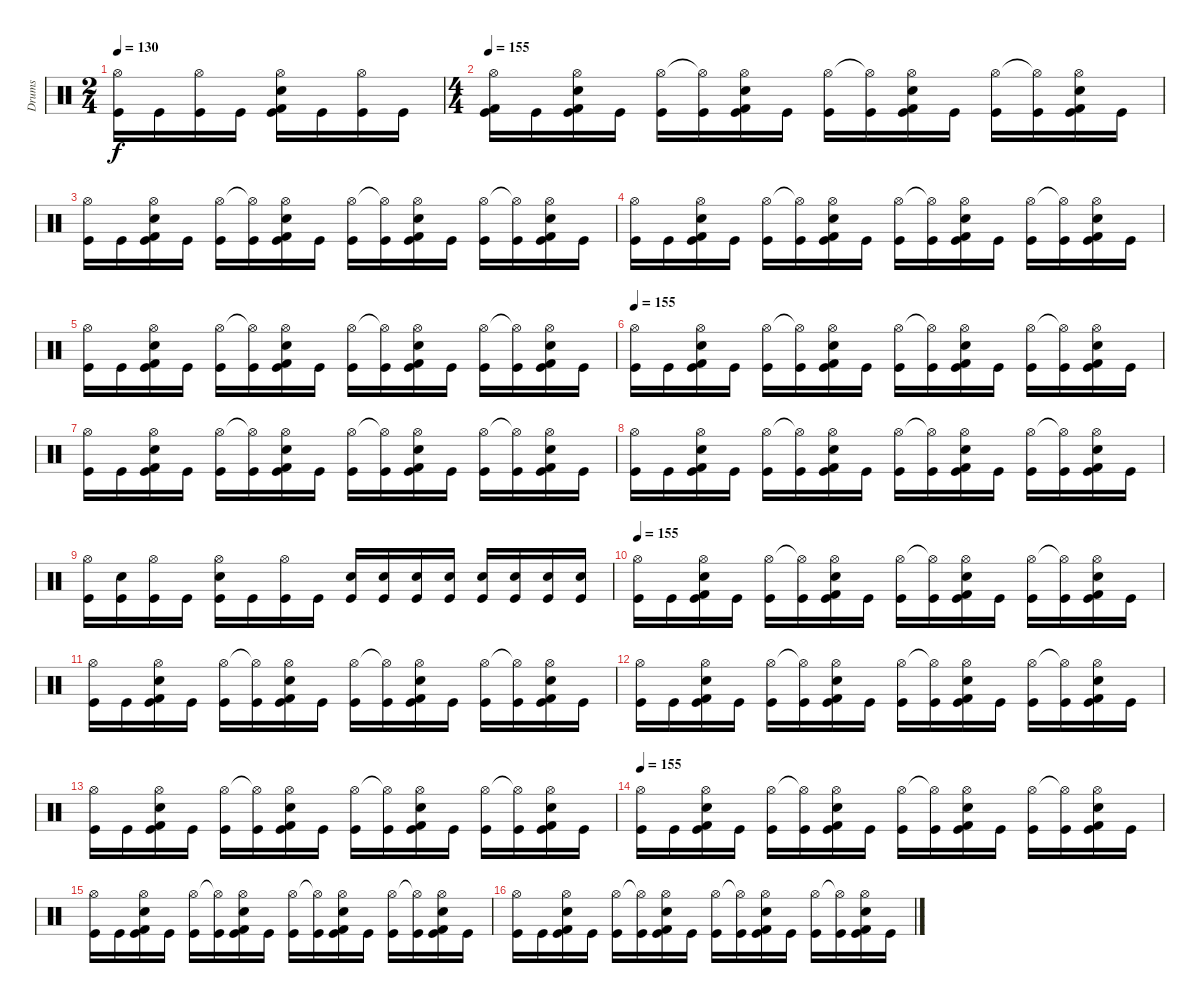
\track ("Drums" "Drums") {instrument percussion}
\staff {score}
\articulation defaults
\ts (2 4)
\tempo 130
\clef neutral
\ks c
("Hi-Hat (open)" "Kick (hit)").16{dy f} "Kick (hit)".16 ("Hi-Hat (open)" "Kick (hit)").16 "Kick (hit)".16 ("Kick (hit) 2" "Electric Snare (hit)" "Hi-Hat (open)" "Kick (hit)").16 "Kick (hit)".16 ("Hi-Hat (open)" "Kick (hit)").16 "Kick (hit)".16 |
\ts (4 4)
\tempo 155
("Kick (hit) 2" "Hi-Hat (open)" "Kick (hit)").16 "Kick (hit)".16 ("Kick (hit) 2" "Electric Snare (hit)" "Hi-Hat (open)" "Kick (hit)").16 "Kick (hit)".16 ("Hi-Hat (open)" "Kick (hit)").16 ("Hi-Hat (open)"{t} "Kick (hit)").16 ("Kick (hit) 2" "Electric Snare (hit)" "Hi-Hat (open)" "Kick (hit)").16 "Kick (hit)".16 ("Hi-Hat (open)" "Kick (hit)").16 ("Hi-Hat (open)"{t} "Kick (hit)").16 ("Kick (hit) 2" "Electric Snare (hit)" "Hi-Hat (open)" "Kick (hit)").16 "Kick (hit)".16 ("Hi-Hat (open)" "Kick (hit)").16 ("Hi-Hat (open)"{t} "Kick (hit)").16 ("Kick (hit) 2" "Electric Snare (hit)" "Hi-Hat (open)" "Kick (hit)").16 "Kick (hit)".16 |
("Hi-Hat (open)" "Kick (hit)").16 "Kick (hit)".16 ("Kick (hit) 2" "Electric Snare (hit)" "Hi-Hat (open)" "Kick (hit)").16 "Kick (hit)".16 ("Hi-Hat (open)" "Kick (hit)").16 ("Hi-Hat (open)"{t} "Kick (hit)").16 ("Kick (hit) 2" "Electric Snare (hit)" "Hi-Hat (open)" "Kick (hit)").16 "Kick (hit)".16 ("Hi-Hat (open)" "Kick (hit)").16 ("Hi-Hat (open)"{t} "Kick (hit)").16 ("Kick (hit) 2" "Electric Snare (hit)" "Hi-Hat (open)" "Kick (hit)").16 "Kick (hit)".16 ("Hi-Hat (open)" "Kick (hit)").16 ("Hi-Hat (open)"{t} "Kick (hit)").16 ("Kick (hit) 2" "Electric Snare (hit)" "Hi-Hat (open)" "Kick (hit)").16 "Kick (hit)".16 |
("Hi-Hat (open)" "Kick (hit)").16 "Kick (hit)".16 ("Kick (hit) 2" "Electric Snare (hit)" "Hi-Hat (open)" "Kick (hit)").16 "Kick (hit)".16 ("Hi-Hat (open)" "Kick (hit)").16 ("Hi-Hat (open)"{t} "Kick (hit)").16 ("Kick (hit) 2" "Electric Snare (hit)" "Hi-Hat (open)" "Kick (hit)").16 "Kick (hit)".16 ("Hi-Hat (open)" "Kick (hit)").16 ("Hi-Hat (open)"{t} "Kick (hit)").16 ("Kick (hit) 2" "Electric Snare (hit)" "Hi-Hat (open)" "Kick (hit)").16 "Kick (hit)".16 ("Hi-Hat (open)" "Kick (hit)").16 ("Hi-Hat (open)"{t} "Kick (hit)").16 ("Kick (hit) 2" "Electric Snare (hit)" "Hi-Hat (open)" "Kick (hit)").16 "Kick (hit)".16 |
("Hi-Hat (open)" "Kick (hit)").16 "Kick (hit)".16 ("Kick (hit) 2" "Electric Snare (hit)" "Hi-Hat (open)" "Kick (hit)").16 "Kick (hit)".16 ("Hi-Hat (open)" "Kick (hit)").16 ("Hi-Hat (open)"{t} "Kick (hit)").16 ("Kick (hit) 2" "Electric Snare (hit)" "Hi-Hat (open)" "Kick (hit)").16 "Kick (hit)".16 ("Hi-Hat (open)" "Kick (hit)").16 ("Hi-Hat (open)"{t} "Kick (hit)").16 ("Kick (hit) 2" "Electric Snare (hit)" "Hi-Hat (open)" "Kick (hit)").16 "Kick (hit)".16 ("Hi-Hat (open)" "Kick (hit)").16 ("Hi-Hat (open)"{t} "Kick (hit)").16 ("Kick (hit) 2" "Electric Snare (hit)" "Hi-Hat (open)" "Kick (hit)").16 "Kick (hit)".16 |
\tempo 155
("Hi-Hat (open)" "Kick (hit)").16 "Kick (hit)".16 ("Kick (hit) 2" "Electric Snare (hit)" "Hi-Hat (open)" "Kick (hit)").16 "Kick (hit)".16 ("Hi-Hat (open)" "Kick (hit)").16 ("Hi-Hat (open)"{t} "Kick (hit)").16 ("Kick (hit) 2" "Electric Snare (hit)" "Hi-Hat (open)" "Kick (hit)").16 "Kick (hit)".16 ("Hi-Hat (open)" "Kick (hit)").16 ("Hi-Hat (open)"{t} "Kick (hit)").16 ("Kick (hit) 2" "Electric Snare (hit)" "Hi-Hat (open)" "Kick (hit)").16 "Kick (hit)".16 ("Hi-Hat (open)" "Kick (hit)").16 ("Hi-Hat (open)"{t} "Kick (hit)").16 ("Kick (hit) 2" "Electric Snare (hit)" "Hi-Hat (open)" "Kick (hit)").16 "Kick (hit)".16 |
("Hi-Hat (open)" "Kick (hit)").16 "Kick (hit)".16 ("Kick (hit) 2" "Electric Snare (hit)" "Hi-Hat (open)" "Kick (hit)").16 "Kick (hit)".16 ("Hi-Hat (open)" "Kick (hit)").16 ("Hi-Hat (open)"{t} "Kick (hit)").16 ("Kick (hit) 2" "Electric Snare (hit)" "Hi-Hat (open)" "Kick (hit)").16 "Kick (hit)".16 ("Hi-Hat (open)" "Kick (hit)").16 ("Hi-Hat (open)"{t} "Kick (hit)").16 ("Kick (hit) 2" "Electric Snare (hit)" "Hi-Hat (open)" "Kick (hit)").16 "Kick (hit)".16 ("Hi-Hat (open)" "Kick (hit)").16 ("Hi-Hat (open)"{t} "Kick (hit)").16 ("Kick (hit) 2" "Electric Snare (hit)" "Hi-Hat (open)" "Kick (hit)").16 "Kick (hit)".16 |
("Hi-Hat (open)" "Kick (hit)").16 "Kick (hit)".16 ("Kick (hit) 2" "Electric Snare (hit)" "Hi-Hat (open)" "Kick (hit)").16 "Kick (hit)".16 ("Hi-Hat (open)" "Kick (hit)").16 ("Hi-Hat (open)"{t} "Kick (hit)").16 ("Kick (hit) 2" "Electric Snare (hit)" "Hi-Hat (open)" "Kick (hit)").16 "Kick (hit)".16 ("Hi-Hat (open)" "Kick (hit)").16 ("Hi-Hat (open)"{t} "Kick (hit)").16 ("Kick (hit) 2" "Electric Snare (hit)" "Hi-Hat (open)" "Kick (hit)").16 "Kick (hit)".16 ("Hi-Hat (open)" "Kick (hit)").16 ("Hi-Hat (open)"{t} "Kick (hit)").16 ("Kick (hit) 2" "Electric Snare (hit)" "Hi-Hat (open)" "Kick (hit)").16 "Kick (hit)".16 |
("Hi-Hat (open)" "Kick (hit)").16 ("Electric Snare (hit)" "Kick (hit)").16 ("Hi-Hat (open)" "Kick (hit)").16 "Kick (hit)".16 ("Electric Snare (hit)" "Hi-Hat (open)" "Kick (hit)").16 "Kick (hit)".16 ("Hi-Hat (open)" "Kick (hit)").16 "Kick (hit)".16 ("Electric Snare (hit)" "Kick (hit)").16 ("Electric Snare (hit)" "Kick (hit)").16 ("Electric Snare (hit)" "Kick (hit)").16 ("Electric Snare (hit)" "Kick (hit)").16 ("Electric Snare (hit)" "Kick (hit)").16 ("Electric Snare (hit)" "Kick (hit)").16 ("Electric Snare (hit)" "Kick (hit)").16 ("Electric Snare (hit)" "Kick (hit)").16 |
\tempo 155
("Hi-Hat (open)" "Kick (hit)").16 "Kick (hit)".16 ("Kick (hit) 2" "Electric Snare (hit)" "Hi-Hat (open)" "Kick (hit)").16 "Kick (hit)".16 ("Hi-Hat (open)" "Kick (hit)").16 ("Hi-Hat (open)"{t} "Kick (hit)").16 ("Kick (hit) 2" "Electric Snare (hit)" "Hi-Hat (open)" "Kick (hit)").16 "Kick (hit)".16 ("Hi-Hat (open)" "Kick (hit)").16 ("Hi-Hat (open)"{t} "Kick (hit)").16 ("Kick (hit) 2" "Electric Snare (hit)" "Hi-Hat (open)" "Kick (hit)").16 "Kick (hit)".16 ("Hi-Hat (open)" "Kick (hit)").16 ("Hi-Hat (open)"{t} "Kick (hit)").16 ("Kick (hit) 2" "Electric Snare (hit)" "Hi-Hat (open)" "Kick (hit)").16 "Kick (hit)".16 |
("Hi-Hat (open)" "Kick (hit)").16 "Kick (hit)".16 ("Kick (hit) 2" "Electric Snare (hit)" "Hi-Hat (open)" "Kick (hit)").16 "Kick (hit)".16 ("Hi-Hat (open)" "Kick (hit)").16 ("Hi-Hat (open)"{t} "Kick (hit)").16 ("Kick (hit) 2" "Electric Snare (hit)" "Hi-Hat (open)" "Kick (hit)").16 "Kick (hit)".16 ("Hi-Hat (open)" "Kick (hit)").16 ("Hi-Hat (open)"{t} "Kick (hit)").16 ("Kick (hit) 2" "Electric Snare (hit)" "Hi-Hat (open)" "Kick (hit)").16 "Kick (hit)".16 ("Hi-Hat (open)" "Kick (hit)").16 ("Hi-Hat (open)"{t} "Kick (hit)").16 ("Kick (hit) 2" "Electric Snare (hit)" "Hi-Hat (open)" "Kick (hit)").16 "Kick (hit)".16 |
("Hi-Hat (open)" "Kick (hit)").16 "Kick (hit)".16 ("Kick (hit) 2" "Electric Snare (hit)" "Hi-Hat (open)" "Kick (hit)").16 "Kick (hit)".16 ("Hi-Hat (open)" "Kick (hit)").16 ("Hi-Hat (open)"{t} "Kick (hit)").16 ("Kick (hit) 2" "Electric Snare (hit)" "Hi-Hat (open)" "Kick (hit)").16 "Kick (hit)".16 ("Hi-Hat (open)" "Kick (hit)").16 ("Hi-Hat (open)"{t} "Kick (hit)").16 ("Kick (hit) 2" "Electric Snare (hit)" "Hi-Hat (open)" "Kick (hit)").16 "Kick (hit)".16 ("Hi-Hat (open)" "Kick (hit)").16 ("Hi-Hat (open)"{t} "Kick (hit)").16 ("Kick (hit) 2" "Electric Snare (hit)" "Hi-Hat (open)" "Kick (hit)").16 "Kick (hit)".16 |
("Hi-Hat (open)" "Kick (hit)").16 "Kick (hit)".16 ("Kick (hit) 2" "Electric Snare (hit)" "Hi-Hat (open)" "Kick (hit)").16 "Kick (hit)".16 ("Hi-Hat (open)" "Kick (hit)").16 ("Hi-Hat (open)"{t} "Kick (hit)").16 ("Kick (hit) 2" "Electric Snare (hit)" "Hi-Hat (open)" "Kick (hit)").16 "Kick (hit)".16 ("Hi-Hat (open)" "Kick (hit)").16 ("Hi-Hat (open)"{t} "Kick (hit)").16 ("Kick (hit) 2" "Electric Snare (hit)" "Hi-Hat (open)" "Kick (hit)").16 "Kick (hit)".16 ("Hi-Hat (open)" "Kick (hit)").16 ("Hi-Hat (open)"{t} "Kick (hit)").16 ("Kick (hit) 2" "Electric Snare (hit)" "Hi-Hat (open)" "Kick (hit)").16 "Kick (hit)".16 |
\tempo 155
("Hi-Hat (open)" "Kick (hit)").16 "Kick (hit)".16 ("Kick (hit) 2" "Electric Snare (hit)" "Hi-Hat (open)" "Kick (hit)").16 "Kick (hit)".16 ("Hi-Hat (open)" "Kick (hit)").16 ("Hi-Hat (open)"{t} "Kick (hit)").16 ("Kick (hit) 2" "Electric Snare (hit)" "Hi-Hat (open)" "Kick (hit)").16 "Kick (hit)".16 ("Hi-Hat (open)" "Kick (hit)").16 ("Hi-Hat (open)"{t} "Kick (hit)").16 ("Kick (hit) 2" "Electric Snare (hit)" "Hi-Hat (open)" "Kick (hit)").16 "Kick (hit)".16 ("Hi-Hat (open)" "Kick (hit)").16 ("Hi-Hat (open)"{t} "Kick (hit)").16 ("Kick (hit) 2" "Electric Snare (hit)" "Hi-Hat (open)" "Kick (hit)").16 "Kick (hit)".16 |
("Hi-Hat (open)" "Kick (hit)").16 "Kick (hit)".16 ("Kick (hit) 2" "Electric Snare (hit)" "Hi-Hat (open)" "Kick (hit)").16 "Kick (hit)".16 ("Hi-Hat (open)" "Kick (hit)").16 ("Hi-Hat (open)"{t} "Kick (hit)").16 ("Kick (hit) 2" "Electric Snare (hit)" "Hi-Hat (open)" "Kick (hit)").16 "Kick (hit)".16 ("Hi-Hat (open)" "Kick (hit)").16 ("Hi-Hat (open)"{t} "Kick (hit)").16 ("Kick (hit) 2" "Electric Snare (hit)" "Hi-Hat (open)" "Kick (hit)").16 "Kick (hit)".16 ("Hi-Hat (open)" "Kick (hit)").16 ("Hi-Hat (open)"{t} "Kick (hit)").16 ("Kick (hit) 2" "Electric Snare (hit)" "Hi-Hat (open)" "Kick (hit)").16 "Kick (hit)".16 |
("Hi-Hat (open)" "Kick (hit)").16 "Kick (hit)".16 ("Kick (hit) 2" "Electric Snare (hit)" "Hi-Hat (open)" "Kick (hit)").16 "Kick (hit)".16 ("Hi-Hat (open)" "Kick (hit)").16 ("Hi-Hat (open)"{t} "Kick (hit)").16 ("Kick (hit) 2" "Electric Snare (hit)" "Hi-Hat (open)" "Kick (hit)").16 "Kick (hit)".16 ("Hi-Hat (open)" "Kick (hit)").16 ("Hi-Hat (open)"{t} "Kick (hit)").16 ("Kick (hit) 2" "Electric Snare (hit)" "Hi-Hat (open)" "Kick (hit)").16 "Kick (hit)".16 ("Hi-Hat (open)" "Kick (hit)").16 ("Hi-Hat (open)"{t} "Kick (hit)").16 ("Kick (hit) 2" "Electric Snare (hit)" "Hi-Hat (open)" "Kick (hit)").16 "Kick (hit)".16
